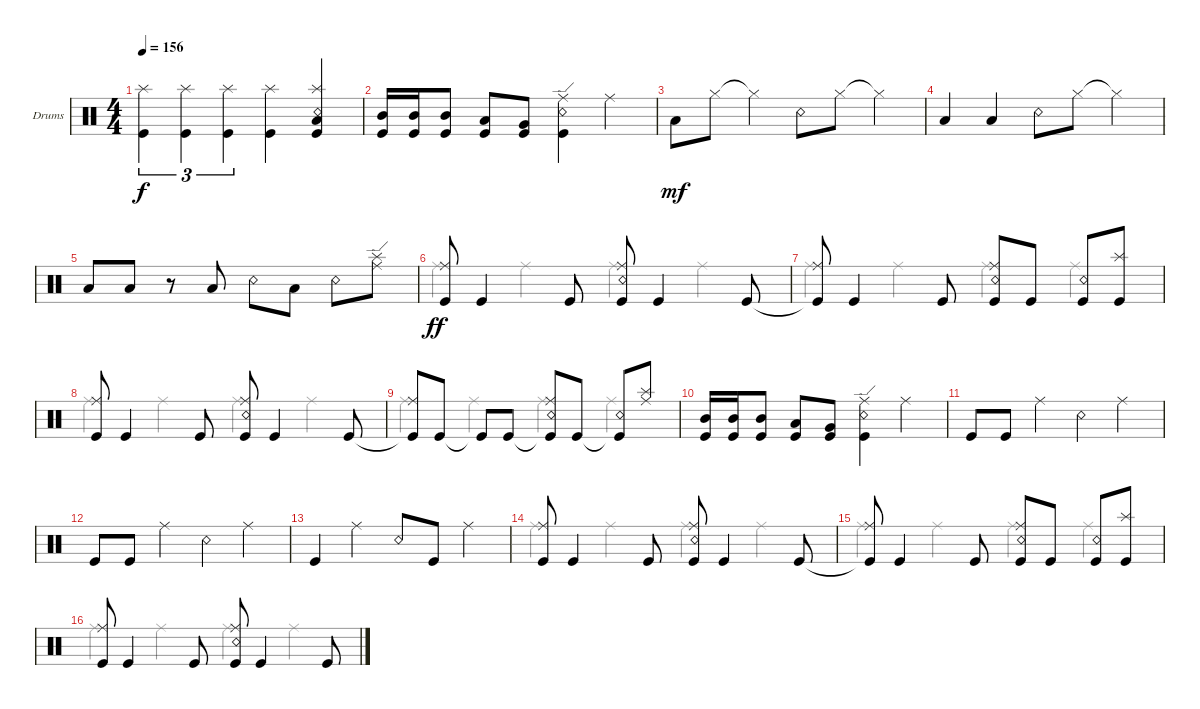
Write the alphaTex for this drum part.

\defaultSystemsLayout 4
\bracketExtendMode groupsimilarinstruments
\firstSystemTrackNameOrientation horizontal
\otherSystemsTrackNameOrientation horizontal
\track ("Drumkit" "Drums") {instrument percussion}
\staff {score}
\articulation defaults
\voice
\ts (4 4)
\tempo 156
\clef neutral
\ks c
("Kick (hit)" "Splash (hit)").4{tu (3 2) dy f} ("Kick (hit)" "Splash (hit)").4{tu (3 2)} ("Kick (hit)" "Splash (hit)").4{tu (3 2)} ("Kick (hit)" "Splash (hit)").4 ("Kick (hit)" "Splash (hit)" "Snare (rim shot)" "Low Tom (hit)").4 |
("Kick (hit)" "Mid Tom (hit)").16 ("Mid Tom (hit)" "Kick (hit)").16 ("Kick (hit)" "Mid Tom (hit)").8 ("Kick (hit)" "Low Tom (hit)").8 ("Kick (hit)" "Very Low Tom (hit)").8 ("Snare (rim shot)" "Ride (edge)" "Kick (hit)").4 "Ride (middle)".4 |
"Low Tom (hit)".8{dy mf} "Hi-Hat (closed)".8 "Hi-Hat (closed)"{t}.4 "Snare (rim shot)".8 "Hi-Hat (closed)".8 "Hi-Hat (closed)"{t}.4 |
"Low Tom (hit)".4 "Low Tom (hit)".4 "Snare (rim shot)".8 "Hi-Hat (closed)".8 "Hi-Hat (closed)"{t}.4 |
"Low Tom (hit)".8 "Low Tom (hit)".8 r.8 "Low Tom (hit)".8 "Snare (rim shot)".8 "Low Tom (hit)".8 "Snare (rim shot)".8 ("Splash (hit)" "Ride (edge)").8 |
("Kick (hit)" "Ride (middle)").8{dy ff} "Kick (hit)".4 "Kick (hit)".8 ("Kick (hit)" "Snare (rim shot)" "Ride (middle)").8 "Kick (hit)".4 "Kick (hit)".8 |
("Kick (hit)"{t} "Ride (middle)").8 "Kick (hit)".4 "Kick (hit)".8 ("Kick (hit)" "Snare (rim shot)" "Ride (middle)").8 "Kick (hit)".8 ("Snare (rim shot)" "Kick (hit)").8 ("Splash (hit)" "Kick (hit)").8 |
("Kick (hit)" "Ride (middle)").8 "Kick (hit)".4 "Kick (hit)".8 ("Kick (hit)" "Snare (rim shot)" "Ride (middle)").8 "Kick (hit)".4 "Kick (hit)".8 |
("Kick (hit)"{t} "Ride (middle)").8 "Kick (hit)".8 "Kick (hit)"{t}.8 "Kick (hit)".8 ("Kick (hit)"{t} "Snare (rim shot)" "Ride (middle)").8 "Kick (hit)".8 ("Kick (hit)"{t} "Snare (rim shot)").8 ("Ride (middle)" "Splash (hit)").8 |
("Kick (hit)" "Mid Tom (hit)").16 ("Mid Tom (hit)" "Kick (hit)").16 ("Kick (hit)" "Mid Tom (hit)").8 ("Kick (hit)" "Low Tom (hit)").8 ("Kick (hit)" "Very Low Tom (hit)").8 ("Snare (rim shot)" "Ride (edge)" "Kick (hit)").4 "Ride (middle)".4 |
"Kick (hit)".8 "Kick (hit)".8 "Ride (middle)".4 "Snare (rim shot)".4 "Ride (middle)".4 |
"Kick (hit)".8 "Kick (hit)".8 "Ride (middle)".4 "Snare (rim shot)".4 "Ride (middle)".4 |
"Kick (hit)".4 "Ride (middle)".4 "Snare (rim shot)".8 "Kick (hit)".8 "Ride (middle)".4 |
("Kick (hit)" "Ride (middle)").8 "Kick (hit)".4 "Kick (hit)".8 ("Kick (hit)" "Snare (rim shot)" "Ride (middle)").8 "Kick (hit)".4 "Kick (hit)".8 |
("Kick (hit)"{t} "Ride (middle)").8 "Kick (hit)".4 "Kick (hit)".8 ("Kick (hit)" "Snare (rim shot)" "Ride (middle)").8 "Kick (hit)".8 ("Snare (rim shot)" "Kick (hit)").8 ("Splash (hit)" "Kick (hit)").8 |
("Kick (hit)" "Ride (middle)").8 "Kick (hit)".4 "Kick (hit)".8 ("Kick (hit)" "Snare (rim shot)" "Ride (middle)").8 "Kick (hit)".4 "Kick (hit)".8
\voice
\clef neutral
\ottava regular
\simile none
\ks c
|
|
|
|
|
"Ride (middle)".4{dy ff} "Ride (middle)".4 "Ride (middle)".4 "Ride (middle)".4 |
"Ride (middle)".4 "Ride (middle)".4 "Ride (middle)".4 "Ride (middle)".4 |
"Ride (middle)".4 "Ride (middle)".4 "Ride (middle)".4 "Ride (middle)".4 |
"Ride (middle)".4 "Ride (middle)".4 "Ride (middle)".4 "Ride (middle)".4 |
|
|
|
|
"Ride (middle)".4 "Ride (middle)".4 "Ride (middle)".4 "Ride (middle)".4 |
"Ride (middle)".4 "Ride (middle)".4 "Ride (middle)".4 "Ride (middle)".4 |
"Ride (middle)".4 "Ride (middle)".4 "Ride (middle)".4 "Ride (middle)".4
